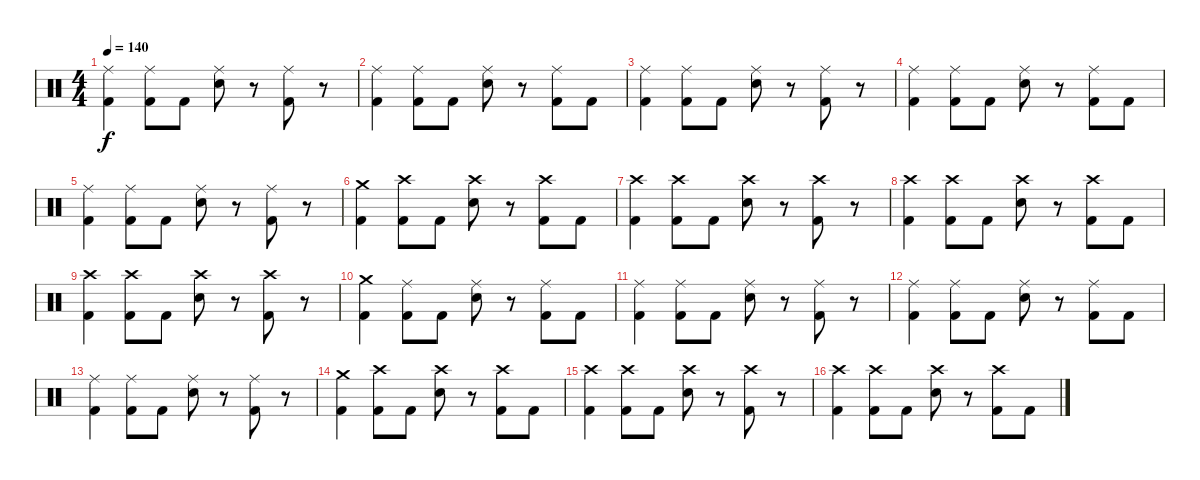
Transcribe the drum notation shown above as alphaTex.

\track "" {instrument percussion}
\staff {score}
\articulation defaults
\ts (4 4)
\tempo 140
\clef neutral
\ks c
("Kick (hit) 2" "Ride (middle)").4{dy f} ("Kick (hit) 2" "Ride (middle)").8 "Kick (hit) 2".8 ("Snare (hit) 2" "Ride (middle)").8 r.8 ("Kick (hit) 2" "Ride (middle)").8 r.8 |
("Kick (hit) 2" "Ride (middle)").4 ("Kick (hit) 2" "Ride (middle)").8 "Kick (hit) 2".8 ("Snare (hit) 2" "Ride (middle)").8 r.8 ("Kick (hit) 2" "Ride (middle)").8 "Kick (hit) 2".8 |
("Kick (hit) 2" "Ride (middle)").4 ("Kick (hit) 2" "Ride (middle)").8 "Kick (hit) 2".8 ("Snare (hit) 2" "Ride (middle)").8 r.8 ("Kick (hit) 2" "Ride (middle)").8 r.8 |
("Kick (hit) 2" "Ride (middle)").4 ("Kick (hit) 2" "Ride (middle)").8 "Kick (hit) 2".8 ("Snare (hit) 2" "Ride (middle)").8 r.8 ("Kick (hit) 2" "Ride (middle)").8 "Kick (hit) 2".8 |
("Kick (hit) 2" "Ride (middle)").4 ("Kick (hit) 2" "Ride (middle)").8 "Kick (hit) 2".8 ("Snare (hit) 2" "Ride (middle)").8 r.8 ("Kick (hit) 2" "Ride (middle)").8 r.8 |
("Kick (hit) 2" "Crash medium (hit)").4 ("Kick (hit) 2" "Crash high (hit)").8 "Kick (hit) 2".8 ("Snare (hit) 2" "Crash high (hit)").8 r.8 ("Kick (hit) 2" "Crash high (hit)").8 "Kick (hit) 2".8 |
("Kick (hit) 2" "Crash high (hit)").4 ("Kick (hit) 2" "Crash high (hit)").8 "Kick (hit) 2".8 ("Snare (hit) 2" "Crash high (hit)").8 r.8 ("Kick (hit) 2" "Crash high (hit)").8 r.8 |
("Kick (hit) 2" "Crash high (hit)").4 ("Kick (hit) 2" "Crash high (hit)").8 "Kick (hit) 2".8 ("Snare (hit) 2" "Crash high (hit)").8 r.8 ("Kick (hit) 2" "Crash high (hit)").8 "Kick (hit) 2".8 |
("Kick (hit) 2" "Crash high (hit)").4 ("Kick (hit) 2" "Crash high (hit)").8 "Kick (hit) 2".8 ("Snare (hit) 2" "Crash high (hit)").8 r.8 ("Kick (hit) 2" "Crash high (hit)").8 r.8 |
("Kick (hit) 2" "Crash medium (hit)").4 ("Kick (hit) 2" "Ride (middle)").8 "Kick (hit) 2".8 ("Snare (hit) 2" "Ride (middle)").8 r.8 ("Kick (hit) 2" "Ride (middle)").8 "Kick (hit) 2".8 |
("Kick (hit) 2" "Ride (middle)").4 ("Kick (hit) 2" "Ride (middle)").8 "Kick (hit) 2".8 ("Snare (hit) 2" "Ride (middle)").8 r.8 ("Kick (hit) 2" "Ride (middle)").8 r.8 |
("Kick (hit) 2" "Ride (middle)").4 ("Kick (hit) 2" "Ride (middle)").8 "Kick (hit) 2".8 ("Snare (hit) 2" "Ride (middle)").8 r.8 ("Kick (hit) 2" "Ride (middle)").8 "Kick (hit) 2".8 |
("Kick (hit) 2" "Ride (middle)").4 ("Kick (hit) 2" "Ride (middle)").8 "Kick (hit) 2".8 ("Snare (hit) 2" "Ride (middle)").8 r.8 ("Kick (hit) 2" "Ride (middle)").8 r.8 |
("Kick (hit) 2" "Crash medium (hit)").4 ("Kick (hit) 2" "Crash high (hit)").8 "Kick (hit) 2".8 ("Snare (hit) 2" "Crash high (hit)").8 r.8 ("Kick (hit) 2" "Crash high (hit)").8 "Kick (hit) 2".8 |
("Kick (hit) 2" "Crash high (hit)").4 ("Kick (hit) 2" "Crash high (hit)").8 "Kick (hit) 2".8 ("Snare (hit) 2" "Crash high (hit)").8 r.8 ("Kick (hit) 2" "Crash high (hit)").8 r.8 |
("Kick (hit) 2" "Crash high (hit)").4 ("Kick (hit) 2" "Crash high (hit)").8 "Kick (hit) 2".8 ("Snare (hit) 2" "Crash high (hit)").8 r.8 ("Kick (hit) 2" "Crash high (hit)").8 "Kick (hit) 2".8
